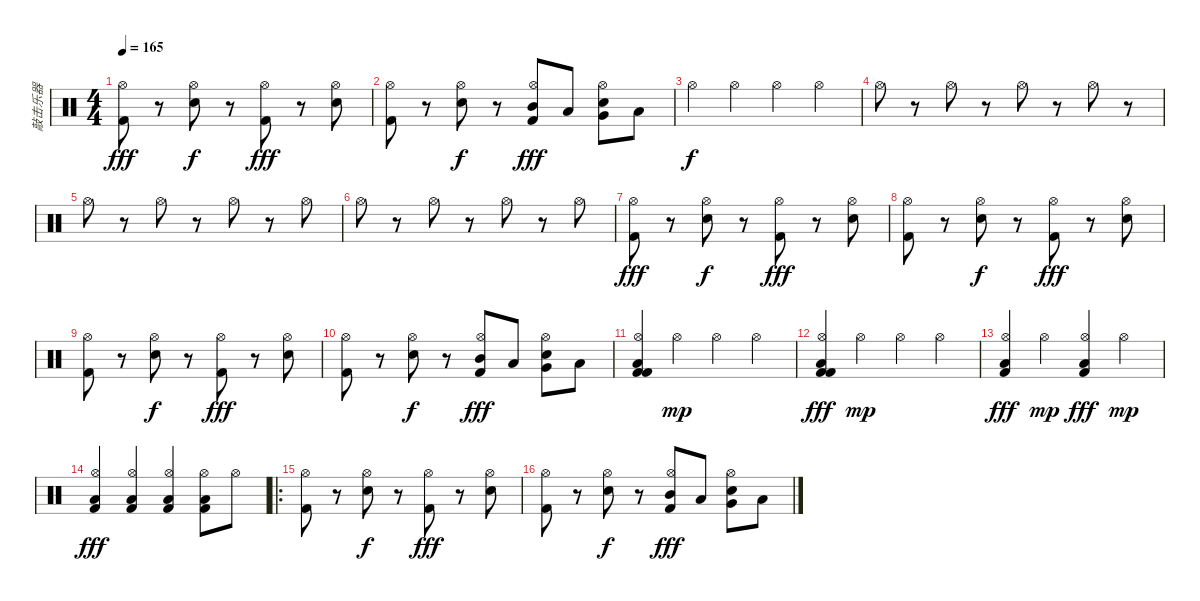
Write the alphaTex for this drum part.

\track ("敲击乐器" "敲击乐器") {instrument percussion}
\staff {score}
\articulation defaults
\ts (4 4)
\tempo 165
\clef neutral
\ks c
("Kick (hit) 2" "Hi-Hat (open)").8{dy fff} r.8 ("Snare (hit) 2" "Hi-Hat (open)").8{dy f} r.8 ("Kick (hit) 2" "Hi-Hat (open)").8{dy fff} r.8 ("Snare (hit) 2" "Hi-Hat (open)").8 |
("Kick (hit) 2" "Hi-Hat (open)").8 r.8 ("Snare (hit) 2" "Hi-Hat (open)").8{dy f} r.8 ("Kick (hit) 2" "Hi-Hat (open)" "Mid Tom (hit)").8{dy fff} "Low Tom (hit)".8 ("Snare (hit) 2" "Hi-Hat (open)" "Very Low Tom (hit)").8 "Low Floor Tom (hit)".8 |
"Hi-Hat (open)".4{dy f} "Hi-Hat (open)".4 "Hi-Hat (open)".4 "Hi-Hat (open)".4 |
"Hi-Hat (open)".8 r.8 "Hi-Hat (open)".8 r.8 "Hi-Hat (open)".8 r.8 "Hi-Hat (open)".8 r.8 |
"Hi-Hat (open)".8 r.8 "Hi-Hat (open)".8 r.8 "Hi-Hat (open)".8 r.8 "Hi-Hat (open)".8 |
"Hi-Hat (open)".8 r.8 "Hi-Hat (open)".8 r.8 "Hi-Hat (open)".8 r.8 "Hi-Hat (open)".8 |
("Kick (hit) 2" "Hi-Hat (open)").8{dy fff} r.8 ("Snare (hit) 2" "Hi-Hat (open)").8{dy f} r.8 ("Kick (hit) 2" "Hi-Hat (open)").8{dy fff} r.8 ("Snare (hit) 2" "Hi-Hat (open)").8 |
("Kick (hit) 2" "Hi-Hat (open)").8 r.8 ("Snare (hit) 2" "Hi-Hat (open)").8{dy f} r.8 ("Kick (hit) 2" "Hi-Hat (open)").8{dy fff} r.8 ("Snare (hit) 2" "Hi-Hat (open)").8 |
("Kick (hit) 2" "Hi-Hat (open)").8 r.8 ("Snare (hit) 2" "Hi-Hat (open)").8{dy f} r.8 ("Kick (hit) 2" "Hi-Hat (open)").8{dy fff} r.8 ("Snare (hit) 2" "Hi-Hat (open)").8 |
("Kick (hit) 2" "Hi-Hat (open)").8 r.8 ("Snare (hit) 2" "Hi-Hat (open)").8{dy f} r.8 ("Kick (hit) 2" "Hi-Hat (open)" "Mid Tom (hit)").8{dy fff} "Low Tom (hit)".8 ("Snare (hit) 2" "Hi-Hat (open)" "Very Low Tom (hit)").8 "Low Floor Tom (hit)".8 |
("Hi-Hat (open)" "Kick (hit) 2" "Kick (hit) 2" "Low Floor Tom (hit)").4 "Hi-Hat (open)".4{dy mp} "Hi-Hat (open)".4 "Hi-Hat (open)".4 |
("Hi-Hat (open)" "Kick (hit) 2" "Kick (hit) 2" "Low Floor Tom (hit)").4{dy fff} "Hi-Hat (open)".4{dy mp} "Hi-Hat (open)".4 "Hi-Hat (open)".4 |
("Hi-Hat (open)" "Kick (hit) 2" "Low Floor Tom (hit)").4{dy fff} "Hi-Hat (open)".4{dy mp} ("Hi-Hat (open)" "Low Floor Tom (hit)" "Kick (hit) 2").4{dy fff} "Hi-Hat (open)".4{dy mp} |
("Hi-Hat (open)" "Kick (hit) 2" "Low Floor Tom (hit)").4{dy fff} ("Hi-Hat (open)" "Kick (hit) 2" "Low Floor Tom (hit)").4 ("Hi-Hat (open)" "Low Floor Tom (hit)" "Kick (hit) 2").4 ("Hi-Hat (open)" "Kick (hit) 2" "Low Floor Tom (hit)").8 "Hi-Hat (open)".8 |
\ro
("Kick (hit) 2" "Hi-Hat (open)").8 r.8 ("Snare (hit) 2" "Hi-Hat (open)").8{dy f} r.8 ("Kick (hit) 2" "Hi-Hat (open)").8{dy fff} r.8 ("Snare (hit) 2" "Hi-Hat (open)").8 |
("Kick (hit) 2" "Hi-Hat (open)").8 r.8 ("Snare (hit) 2" "Hi-Hat (open)").8{dy f} r.8 ("Kick (hit) 2" "Hi-Hat (open)" "Mid Tom (hit)").8{dy fff} "Low Tom (hit)".8 ("Snare (hit) 2" "Hi-Hat (open)" "Very Low Tom (hit)").8 "Low Floor Tom (hit)".8
